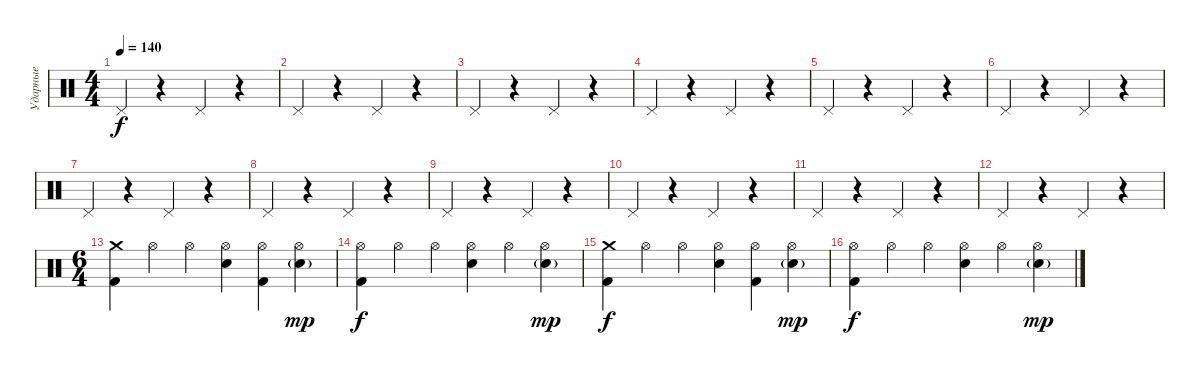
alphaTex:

\track ("Ударные" "Ударные") {instrument percussion}
\staff {score}
\articulation defaults
\ts (4 4)
\tempo 140
\clef neutral
\ks c "Pedal Hi-Hat (hit)".4{dy f}
r.4 "Pedal Hi-Hat (hit)".4 r.4 |
"Pedal Hi-Hat (hit)".4 r.4 "Pedal Hi-Hat (hit)".4 r.4 |
"Pedal Hi-Hat (hit)".4 r.4 "Pedal Hi-Hat (hit)".4 r.4 |
"Pedal Hi-Hat (hit)".4 r.4 "Pedal Hi-Hat (hit)".4 r.4 |
"Pedal Hi-Hat (hit)".4 r.4 "Pedal Hi-Hat (hit)".4 r.4 |
"Pedal Hi-Hat (hit)".4 r.4 "Pedal Hi-Hat (hit)".4 r.4 |
"Pedal Hi-Hat (hit)".4 r.4 "Pedal Hi-Hat (hit)".4 r.4 |
"Pedal Hi-Hat (hit)".4 r.4 "Pedal Hi-Hat (hit)".4 r.4 |
"Pedal Hi-Hat (hit)".4 r.4 "Pedal Hi-Hat (hit)".4 r.4 |
"Pedal Hi-Hat (hit)".4 r.4 "Pedal Hi-Hat (hit)".4 r.4 |
"Pedal Hi-Hat (hit)".4 r.4 "Pedal Hi-Hat (hit)".4 r.4 |
"Pedal Hi-Hat (hit)".4 r.4 "Pedal Hi-Hat (hit)".4 r.4 |
\ts (6 4)
("Crash medium (hit)" "Kick (hit) 2").4 "Hi-Hat (open)".4 "Hi-Hat (open)".4 ("Hi-Hat (open)" "Electric Snare (hit)").4 ("Hi-Hat (open)" "Kick (hit) 2").4 ("Hi-Hat (open)" "Electric Snare (hit)"{g}).4{dy mp} |
("Hi-Hat (open)" "Kick (hit) 2").4{dy f} "Hi-Hat (open)".4 "Hi-Hat (open)".4 ("Hi-Hat (open)" "Electric Snare (hit)").4 "Hi-Hat (open)".4 ("Hi-Hat (open)" "Electric Snare (hit)"{g}).4{dy mp} |
("Crash medium (hit)" "Kick (hit) 2").4{dy f} "Hi-Hat (open)".4 "Hi-Hat (open)".4 ("Hi-Hat (open)" "Electric Snare (hit)").4 ("Hi-Hat (open)" "Kick (hit) 2").4 ("Hi-Hat (open)" "Electric Snare (hit)"{g}).4{dy mp} |
("Hi-Hat (open)" "Kick (hit) 2").4{dy f} "Hi-Hat (open)".4 "Hi-Hat (open)".4 ("Hi-Hat (open)" "Electric Snare (hit)").4 "Hi-Hat (open)".4 ("Hi-Hat (open)" "Electric Snare (hit)"{g}).4{dy mp}
